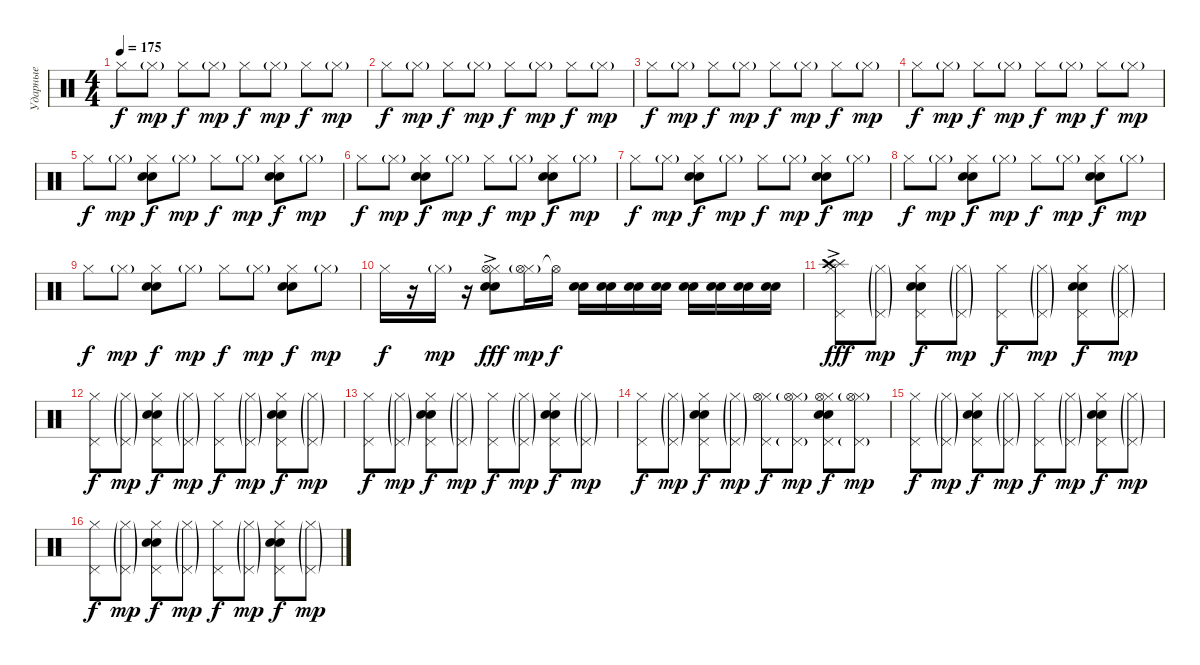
\track ("Ударные" "Ударные") {instrument percussion}
\staff {score}
\articulation defaults
\ts (4 4)
\tempo 175
\clef neutral
\ks c "Hi-Hat (closed)".8{dy f} "Hi-Hat (closed)"{g}.8{dy mp} "Hi-Hat (closed)".8{dy f} "Hi-Hat (closed)"{g}.8{dy mp} "Hi-Hat (closed)".8{dy f} "Hi-Hat (closed)"{g}.8{dy mp} "Hi-Hat (closed)".8{dy f} "Hi-Hat (closed)"{g}.8{dy mp}
|
"Hi-Hat (closed)".8{dy f} "Hi-Hat (closed)"{g}.8{dy mp} "Hi-Hat (closed)".8{dy f} "Hi-Hat (closed)"{g}.8{dy mp} "Hi-Hat (closed)".8{dy f} "Hi-Hat (closed)"{g}.8{dy mp} "Hi-Hat (closed)".8{dy f} "Hi-Hat (closed)"{g}.8{dy mp} |
"Hi-Hat (closed)".8{dy f} "Hi-Hat (closed)"{g}.8{dy mp} "Hi-Hat (closed)".8{dy f} "Hi-Hat (closed)"{g}.8{dy mp} "Hi-Hat (closed)".8{dy f} "Hi-Hat (closed)"{g}.8{dy mp} "Hi-Hat (closed)".8{dy f} "Hi-Hat (closed)"{g}.8{dy mp} |
"Hi-Hat (closed)".8{dy f} "Hi-Hat (closed)"{g}.8{dy mp} "Hi-Hat (closed)".8{dy f} "Hi-Hat (closed)"{g}.8{dy mp} "Hi-Hat (closed)".8{dy f} "Hi-Hat (closed)"{g}.8{dy mp} "Hi-Hat (closed)".8{dy f} "Hi-Hat (closed)"{g}.8{dy mp} |
"Hi-Hat (closed)".8{dy f} "Hi-Hat (closed)"{g}.8{dy mp} ("Hi-Hat (closed)" "Snare (hit) 2" "Electric Snare (hit)").8{dy f} "Hi-Hat (closed)"{g}.8{dy mp} "Hi-Hat (closed)".8{dy f} "Hi-Hat (closed)"{g}.8{dy mp} ("Hi-Hat (closed)" "Snare (hit) 2" "Electric Snare (hit)").8{dy f} "Hi-Hat (closed)"{g}.8{dy mp} |
"Hi-Hat (closed)".8{dy f} "Hi-Hat (closed)"{g}.8{dy mp} ("Hi-Hat (closed)" "Snare (hit) 2" "Electric Snare (hit)").8{dy f} "Hi-Hat (closed)"{g}.8{dy mp} "Hi-Hat (closed)".8{dy f} "Hi-Hat (closed)"{g}.8{dy mp} ("Hi-Hat (closed)" "Snare (hit) 2" "Electric Snare (hit)").8{dy f} "Hi-Hat (closed)"{g}.8{dy mp} |
"Hi-Hat (closed)".8{dy f} "Hi-Hat (closed)"{g}.8{dy mp} ("Hi-Hat (closed)" "Snare (hit) 2" "Electric Snare (hit)").8{dy f} "Hi-Hat (closed)"{g}.8{dy mp} "Hi-Hat (closed)".8{dy f} "Hi-Hat (closed)"{g}.8{dy mp} ("Hi-Hat (closed)" "Snare (hit) 2" "Electric Snare (hit)").8{dy f} "Hi-Hat (closed)"{g}.8{dy mp} |
"Hi-Hat (closed)".8{dy f} "Hi-Hat (closed)"{g}.8{dy mp} ("Hi-Hat (closed)" "Snare (hit) 2" "Electric Snare (hit)").8{dy f} "Hi-Hat (closed)"{g}.8{dy mp} "Hi-Hat (closed)".8{dy f} "Hi-Hat (closed)"{g}.8{dy mp} ("Hi-Hat (closed)" "Snare (hit) 2" "Electric Snare (hit)").8{dy f} "Hi-Hat (closed)"{g}.8{dy mp} |
"Hi-Hat (closed)".8{dy f} "Hi-Hat (closed)"{g}.8{dy mp} ("Hi-Hat (closed)" "Snare (hit) 2" "Electric Snare (hit)").8{dy f} "Hi-Hat (closed)"{g}.8{dy mp} "Hi-Hat (closed)".8{dy f} "Hi-Hat (closed)"{g}.8{dy mp} ("Hi-Hat (closed)" "Snare (hit) 2" "Electric Snare (hit)").8{dy f} "Hi-Hat (closed)"{g}.8{dy mp} |
"Hi-Hat (closed)".16{dy f} r.16 "Hi-Hat (closed)"{g}.16{dy mp} r.16 ("Hi-Hat (closed)" "Electric Snare (hit)" "Hi-Hat (open)"{ac} "Snare (hit) 2").8{dy fff} ("Hi-Hat (closed)"{g} "Hi-Hat (open)").16{dy mp} "Hi-Hat (open)"{t}.16{dy f} ("Snare (hit) 2" "Electric Snare (hit)").16 ("Snare (hit) 2" "Electric Snare (hit)").16 ("Snare (hit) 2" "Electric Snare (hit)").16 ("Snare (hit) 2" "Electric Snare (hit)").16 ("Snare (hit) 2" "Electric Snare (hit)").16 ("Snare (hit) 2" "Electric Snare (hit)").16 ("Snare (hit) 2" "Electric Snare (hit)").16 ("Snare (hit) 2" "Electric Snare (hit)").16 |
("Hi-Hat (closed)" "Pedal Hi-Hat (hit)" "Splash (hit)"{ac} "Crash high (hit)"{ac}).8{dy fff} ("Hi-Hat (closed)"{g} "Pedal Hi-Hat (hit)"{g}).8{dy mp} ("Hi-Hat (closed)" "Pedal Hi-Hat (hit)" "Snare (hit) 2" "Electric Snare (hit)").8{dy f} ("Hi-Hat (closed)"{g} "Pedal Hi-Hat (hit)"{g}).8{dy mp} ("Hi-Hat (closed)" "Pedal Hi-Hat (hit)").8{dy f} ("Hi-Hat (closed)"{g} "Pedal Hi-Hat (hit)"{g}).8{dy mp} ("Hi-Hat (closed)" "Pedal Hi-Hat (hit)" "Snare (hit) 2" "Electric Snare (hit)").8{dy f} ("Hi-Hat (closed)"{g} "Pedal Hi-Hat (hit)"{g}).8{dy mp} |
("Hi-Hat (closed)" "Pedal Hi-Hat (hit)").8{dy f} ("Hi-Hat (closed)"{g} "Pedal Hi-Hat (hit)"{g}).8{dy mp} ("Hi-Hat (closed)" "Pedal Hi-Hat (hit)" "Snare (hit) 2" "Electric Snare (hit)").8{dy f} ("Hi-Hat (closed)"{g} "Pedal Hi-Hat (hit)"{g}).8{dy mp} ("Hi-Hat (closed)" "Pedal Hi-Hat (hit)").8{dy f} ("Hi-Hat (closed)"{g} "Pedal Hi-Hat (hit)"{g}).8{dy mp} ("Hi-Hat (closed)" "Pedal Hi-Hat (hit)" "Snare (hit) 2" "Electric Snare (hit)").8{dy f} ("Hi-Hat (closed)"{g} "Pedal Hi-Hat (hit)"{g}).8{dy mp} |
("Hi-Hat (closed)" "Pedal Hi-Hat (hit)").8{dy f} ("Hi-Hat (closed)"{g} "Pedal Hi-Hat (hit)"{g}).8{dy mp} ("Hi-Hat (closed)" "Pedal Hi-Hat (hit)" "Snare (hit) 2" "Electric Snare (hit)").8{dy f} ("Hi-Hat (closed)"{g} "Pedal Hi-Hat (hit)"{g}).8{dy mp} ("Hi-Hat (closed)" "Pedal Hi-Hat (hit)").8{dy f} ("Hi-Hat (closed)"{g} "Pedal Hi-Hat (hit)"{g}).8{dy mp} ("Hi-Hat (closed)" "Pedal Hi-Hat (hit)" "Snare (hit) 2" "Electric Snare (hit)").8{dy f} ("Hi-Hat (closed)"{g} "Pedal Hi-Hat (hit)"{g}).8{dy mp} |
("Hi-Hat (closed)" "Pedal Hi-Hat (hit)").8{dy f} ("Hi-Hat (closed)"{g} "Pedal Hi-Hat (hit)"{g}).8{dy mp} ("Hi-Hat (closed)" "Pedal Hi-Hat (hit)" "Snare (hit) 2" "Electric Snare (hit)").8{dy f} ("Hi-Hat (closed)"{g} "Pedal Hi-Hat (hit)"{g}).8{dy mp} ("Hi-Hat (closed)" "Pedal Hi-Hat (hit)" "Hi-Hat (open)").8{dy f} ("Hi-Hat (closed)"{g} "Pedal Hi-Hat (hit)"{g} "Hi-Hat (open)").8{dy mp} ("Hi-Hat (closed)" "Pedal Hi-Hat (hit)" "Hi-Hat (open)" "Snare (hit) 2" "Electric Snare (hit)").8{dy f} ("Hi-Hat (closed)"{g} "Pedal Hi-Hat (hit)"{g} "Hi-Hat (open)").8{dy mp} |
("Hi-Hat (closed)" "Pedal Hi-Hat (hit)").8{dy f} ("Hi-Hat (closed)"{g} "Pedal Hi-Hat (hit)"{g}).8{dy mp} ("Hi-Hat (closed)" "Pedal Hi-Hat (hit)" "Snare (hit) 2" "Electric Snare (hit)").8{dy f} ("Hi-Hat (closed)"{g} "Pedal Hi-Hat (hit)"{g}).8{dy mp} ("Hi-Hat (closed)" "Pedal Hi-Hat (hit)").8{dy f} ("Hi-Hat (closed)"{g} "Pedal Hi-Hat (hit)"{g}).8{dy mp} ("Hi-Hat (closed)" "Pedal Hi-Hat (hit)" "Snare (hit) 2" "Electric Snare (hit)").8{dy f} ("Hi-Hat (closed)"{g} "Pedal Hi-Hat (hit)"{g}).8{dy mp} |
("Hi-Hat (closed)" "Pedal Hi-Hat (hit)").8{dy f} ("Hi-Hat (closed)"{g} "Pedal Hi-Hat (hit)"{g}).8{dy mp} ("Hi-Hat (closed)" "Pedal Hi-Hat (hit)" "Snare (hit) 2" "Electric Snare (hit)").8{dy f} ("Hi-Hat (closed)"{g} "Pedal Hi-Hat (hit)"{g}).8{dy mp} ("Hi-Hat (closed)" "Pedal Hi-Hat (hit)").8{dy f} ("Hi-Hat (closed)"{g} "Pedal Hi-Hat (hit)"{g}).8{dy mp} ("Hi-Hat (closed)" "Pedal Hi-Hat (hit)" "Snare (hit) 2" "Electric Snare (hit)").8{dy f} ("Hi-Hat (closed)"{g} "Pedal Hi-Hat (hit)"{g}).8{dy mp}
